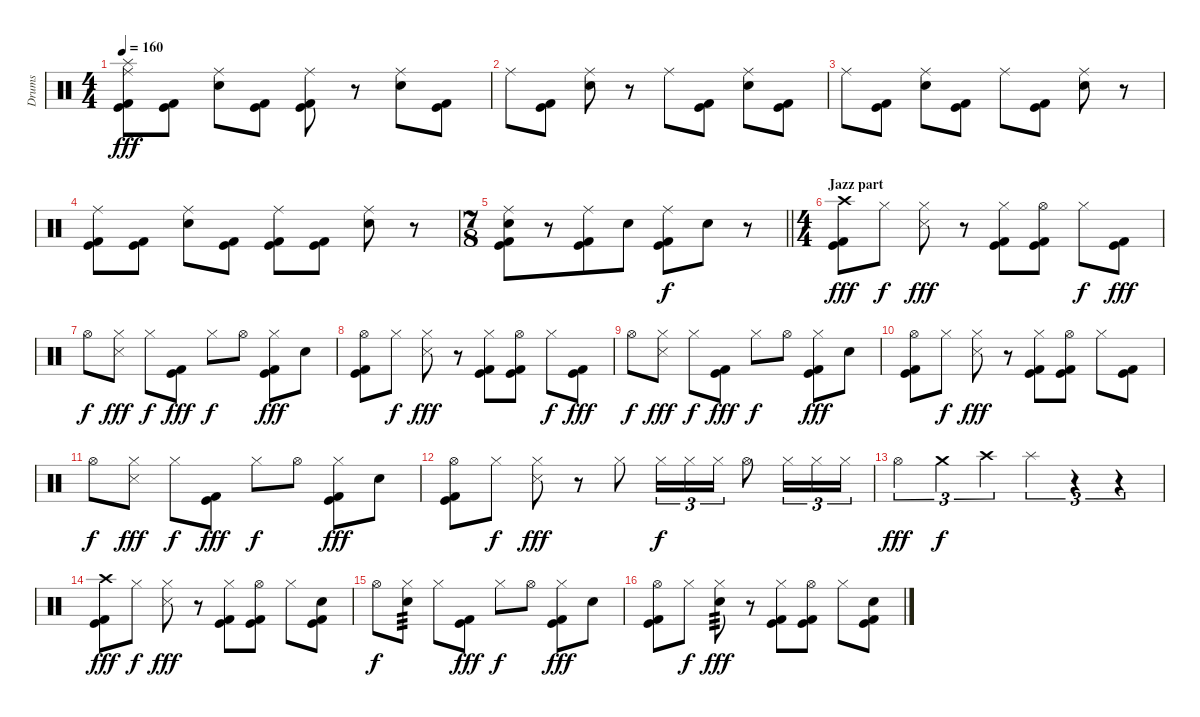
\track ("Drums" "Drums") {instrument percussion}
\staff {score}
\articulation defaults
\ts (4 4)
\tempo 160
\clef neutral
\ks c
("Splash (hit)" "Ride (middle)" "Kick (hit)" "Kick (hit) 2").8{dy fff} ("Kick (hit)" "Kick (hit) 2").8 ("Ride (middle)" "Electric Snare (hit)").8 ("Kick (hit)" "Kick (hit) 2").8 ("Ride (middle)" "Kick (hit)" "Kick (hit) 2").8 r.8 ("Ride (middle)" "Electric Snare (hit)").8 ("Kick (hit)" "Kick (hit) 2").8 |
"Ride (middle)".8 ("Kick (hit)" "Kick (hit) 2").8 ("Ride (middle)" "Electric Snare (hit)").8 r.8 "Ride (middle)".8 ("Kick (hit)" "Kick (hit) 2").8 ("Ride (middle)" "Electric Snare (hit)").8 ("Kick (hit)" "Kick (hit) 2").8 |
"Ride (middle)".8 ("Kick (hit)" "Kick (hit) 2").8 ("Ride (middle)" "Electric Snare (hit)").8 ("Kick (hit)" "Kick (hit) 2").8 "Ride (middle)".8 ("Kick (hit)" "Kick (hit) 2").8 ("Ride (middle)" "Electric Snare (hit)").8 r.8 |
("Ride (middle)" "Kick (hit)" "Kick (hit) 2").8 ("Kick (hit)" "Kick (hit) 2").8 ("Ride (middle)" "Electric Snare (hit)").8 ("Kick (hit)" "Kick (hit) 2").8 ("Ride (middle)" "Kick (hit)" "Kick (hit) 2").8 ("Kick (hit)" "Kick (hit) 2").8 ("Ride (middle)" "Electric Snare (hit)").8 r.8 |
\ts (7 8)
\barLineRight lightlight
("Ride (middle)" "Electric Snare (hit)" "Kick (hit)" "Kick (hit) 2").8 r.8 ("Ride (middle)" "Kick (hit)" "Kick (hit) 2").8 "Electric Snare (hit)".8 ("Ride (middle)" "Kick (hit)" "Kick (hit) 2").8{dy f} "Electric Snare (hit)".8 r.8 |
\ts (4 4)
\section ("" "Jazz part")
("Crash high (hit)" "Kick (hit)" "Kick (hit) 2").8{dy fff} "Hi-Hat (closed)".8{dy f} ("Hi-Hat (closed)" "Metronome (hit)").8{dy fff} r.8 ("Hi-Hat (closed)" "Kick (hit)" "Kick (hit) 2").8 ("Hi-Hat (open)" "Kick (hit)" "Kick (hit) 2").8 "Hi-Hat (closed)".8{dy f} ("Kick (hit)" "Kick (hit) 2").8{dy fff} |
"Hi-Hat (open)".8{dy f} ("Hi-Hat (closed)" "Metronome (hit)").8{dy fff} "Hi-Hat (closed)".8{dy f} ("Kick (hit)" "Kick (hit) 2").8{dy fff} "Hi-Hat (closed)".8{dy f} "Hi-Hat (open)".8 ("Hi-Hat (closed)" "Kick (hit)" "Kick (hit) 2").8{dy fff} "Electric Snare (hit)".8 |
("Hi-Hat (open)" "Kick (hit)" "Kick (hit) 2").8 "Hi-Hat (closed)".8{dy f} ("Hi-Hat (closed)" "Metronome (hit)").8{dy fff} r.8 ("Hi-Hat (closed)" "Kick (hit)" "Kick (hit) 2").8 ("Hi-Hat (open)" "Kick (hit)" "Kick (hit) 2").8 "Hi-Hat (closed)".8{dy f} ("Kick (hit)" "Kick (hit) 2").8{dy fff} |
"Hi-Hat (open)".8{dy f} ("Hi-Hat (closed)" "Metronome (hit)").8{dy fff} "Hi-Hat (closed)".8{dy f} ("Kick (hit)" "Kick (hit) 2").8{dy fff} "Hi-Hat (closed)".8{dy f} "Hi-Hat (open)".8 ("Hi-Hat (closed)" "Kick (hit)" "Kick (hit) 2").8{dy fff} "Electric Snare (hit)".8 |
("Hi-Hat (open)" "Kick (hit)" "Kick (hit) 2").8 "Hi-Hat (closed)".8{dy f} ("Hi-Hat (closed)" "Metronome (hit)").8{dy fff} r.8 ("Hi-Hat (closed)" "Kick (hit)" "Kick (hit) 2").8 ("Hi-Hat (open)" "Kick (hit)" "Kick (hit) 2").8 "Hi-Hat (closed)".8 ("Kick (hit)" "Kick (hit) 2").8 |
"Hi-Hat (open)".8{dy f} ("Hi-Hat (closed)" "Metronome (hit)").8{dy fff} "Hi-Hat (closed)".8{dy f} ("Kick (hit)" "Kick (hit) 2").8{dy fff} "Hi-Hat (closed)".8{dy f} "Hi-Hat (open)".8 ("Hi-Hat (closed)" "Kick (hit)" "Kick (hit) 2").8{dy fff} "Electric Snare (hit)".8 |
("Hi-Hat (open)" "Kick (hit)" "Kick (hit) 2").8 "Hi-Hat (closed)".8{dy f} ("Hi-Hat (closed)" "Metronome (hit)").8{dy fff} r.8 "Hi-Hat (closed)".8 "Hi-Hat (closed)".16{tu (3 2) dy f} "Hi-Hat (closed)".16{tu (3 2)} "Hi-Hat (closed)".16{tu (3 2)} "Hi-Hat (open)".8 "Hi-Hat (closed)".16{tu (3 2)} "Hi-Hat (closed)".16{tu (3 2)} "Hi-Hat (closed)".16{tu (3 2)} |
"Hi-Hat (open)".4{tu (3 2) dy fff} "Crash medium (hit)".4{tu (3 2) dy f} "Crash high (hit)".4{tu (3 2)} "Splash (hit)".4{tu (3 2)} r.4{tu (3 2)} r.4{tu (3 2)} |
("Crash high (hit)" "Kick (hit)" "Kick (hit) 2").8{dy fff} "Hi-Hat (closed)".8{dy f} ("Hi-Hat (closed)" "Metronome (hit)").8{dy fff} r.8 ("Hi-Hat (closed)" "Kick (hit)" "Kick (hit) 2").8 ("Hi-Hat (open)" "Kick (hit)" "Kick (hit) 2").8 "Hi-Hat (closed)".8 ("Electric Snare (hit)" "Kick (hit)" "Kick (hit) 2").8 |
"Hi-Hat (open)".8{dy f} ("Hi-Hat (closed)" "Electric Snare (hit)").8{tp 3} "Hi-Hat (closed)".8 ("Kick (hit)" "Kick (hit) 2").8{dy fff} "Hi-Hat (closed)".8{dy f} "Hi-Hat (open)".8 ("Hi-Hat (closed)" "Kick (hit)" "Kick (hit) 2").8{dy fff} "Electric Snare (hit)".8 |
("Hi-Hat (open)" "Kick (hit)" "Kick (hit) 2").8 "Hi-Hat (closed)".8{dy f} ("Hi-Hat (closed)" "Electric Snare (hit)").8{tp 3 dy fff} r.8 ("Hi-Hat (closed)" "Kick (hit)" "Kick (hit) 2").8 ("Hi-Hat (open)" "Kick (hit)" "Kick (hit) 2").8 "Hi-Hat (closed)".8 ("Electric Snare (hit)" "Kick (hit)" "Kick (hit) 2").8
